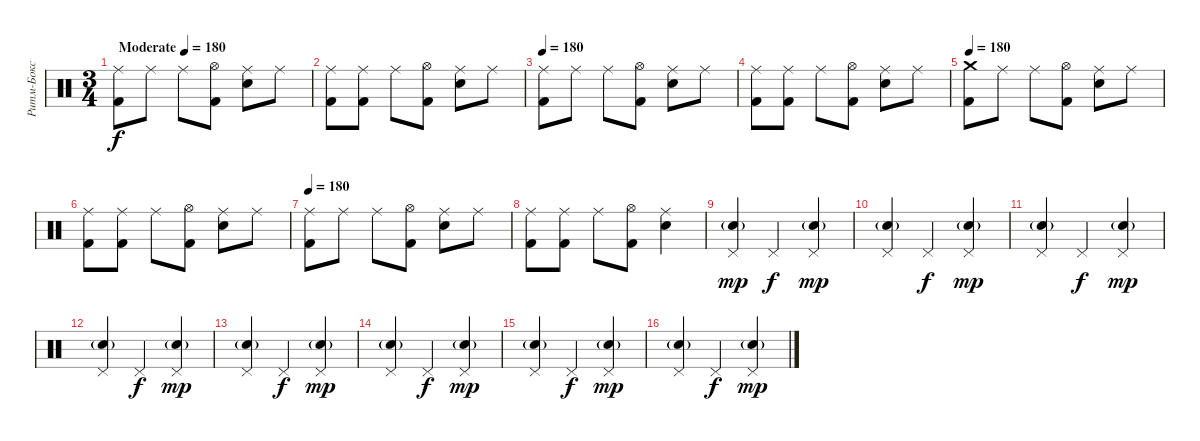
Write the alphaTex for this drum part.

\track ("Ритм-Бокс" "Ритм-Бокс") {instrument percussion}
\staff {score}
\articulation defaults
\ts (3 4)
\tempo (180 "Moderate")
\clef neutral
\ks c
("Ride (middle)" "Kick (hit) 2").8{dy f} "Ride (middle)".8 "Ride (middle)".8 ("Hi-Hat (open)" "Kick (hit) 2").8 ("Ride (middle)" "Snare (hit) 2").8 "Ride (middle)".8 |
("Ride (middle)" "Kick (hit) 2").8 ("Ride (middle)" "Kick (hit) 2").8 "Ride (middle)".8 ("Hi-Hat (open)" "Kick (hit) 2").8 ("Ride (middle)" "Snare (hit) 2").8 "Ride (middle)".8 |
\tempo 180
("Ride (middle)" "Kick (hit) 2").8 "Ride (middle)".8 "Ride (middle)".8 ("Hi-Hat (open)" "Kick (hit) 2").8 ("Ride (middle)" "Snare (hit) 2").8 "Ride (middle)".8 |
("Ride (middle)" "Kick (hit) 2").8 ("Ride (middle)" "Kick (hit) 2").8 "Ride (middle)".8 ("Hi-Hat (open)" "Kick (hit) 2").8 ("Ride (middle)" "Snare (hit) 2").8 "Ride (middle)".8 |
\tempo 180
("Crash medium (hit)" "Kick (hit) 2").8 "Ride (middle)".8 "Ride (middle)".8 ("Hi-Hat (open)" "Kick (hit) 2").8 ("Ride (middle)" "Snare (hit) 2").8 "Ride (middle)".8 |
("Ride (middle)" "Kick (hit) 2").8 ("Ride (middle)" "Kick (hit) 2").8 "Ride (middle)".8 ("Hi-Hat (open)" "Kick (hit) 2").8 ("Ride (middle)" "Snare (hit) 2").8 "Ride (middle)".8 |
\tempo 180
("Ride (middle)" "Kick (hit) 2").8 "Ride (middle)".8 "Ride (middle)".8 ("Hi-Hat (open)" "Kick (hit) 2").8 ("Ride (middle)" "Snare (hit) 2").8 "Ride (middle)".8 |
("Ride (middle)" "Kick (hit) 2").8 ("Ride (middle)" "Kick (hit) 2").8 "Ride (middle)".8 ("Hi-Hat (open)" "Kick (hit) 2").8 ("Ride (middle)" "Snare (hit) 2").4 |
("Pedal Hi-Hat (hit)" "Electric Snare (hit)"{g}).4{dy mp} "Pedal Hi-Hat (hit)".4{dy f} ("Pedal Hi-Hat (hit)" "Electric Snare (hit)"{g}).4{dy mp} |
("Pedal Hi-Hat (hit)" "Electric Snare (hit)"{g}).4 "Pedal Hi-Hat (hit)".4{dy f} ("Pedal Hi-Hat (hit)" "Electric Snare (hit)"{g}).4{dy mp} |
("Pedal Hi-Hat (hit)" "Electric Snare (hit)"{g}).4 "Pedal Hi-Hat (hit)".4{dy f} ("Pedal Hi-Hat (hit)" "Electric Snare (hit)"{g}).4{dy mp} |
("Pedal Hi-Hat (hit)" "Electric Snare (hit)"{g}).4 "Pedal Hi-Hat (hit)".4{dy f} ("Pedal Hi-Hat (hit)" "Electric Snare (hit)"{g}).4{dy mp} |
("Pedal Hi-Hat (hit)" "Electric Snare (hit)"{g}).4 "Pedal Hi-Hat (hit)".4{dy f} ("Pedal Hi-Hat (hit)" "Electric Snare (hit)"{g}).4{dy mp} |
("Pedal Hi-Hat (hit)" "Electric Snare (hit)"{g}).4 "Pedal Hi-Hat (hit)".4{dy f} ("Pedal Hi-Hat (hit)" "Electric Snare (hit)"{g}).4{dy mp} |
("Pedal Hi-Hat (hit)" "Electric Snare (hit)"{g}).4 "Pedal Hi-Hat (hit)".4{dy f} ("Pedal Hi-Hat (hit)" "Electric Snare (hit)"{g}).4{dy mp} |
("Pedal Hi-Hat (hit)" "Electric Snare (hit)"{g}).4 "Pedal Hi-Hat (hit)".4{dy f} ("Pedal Hi-Hat (hit)" "Electric Snare (hit)"{g}).4{dy mp}
